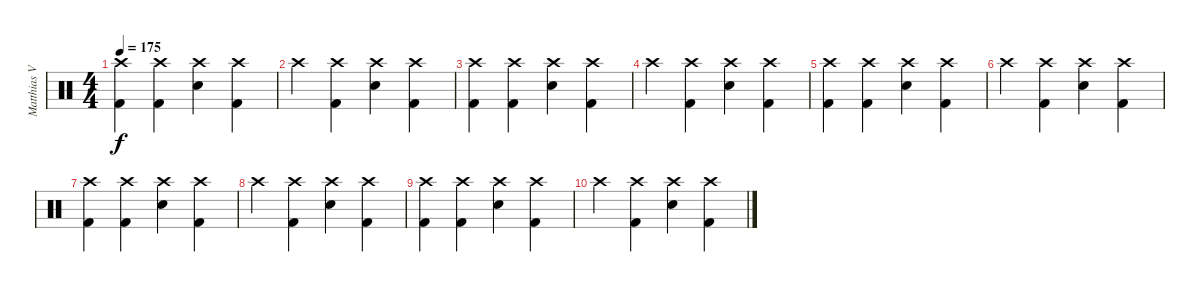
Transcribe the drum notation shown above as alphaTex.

\track ("Matthias Voigt" "Matthias V") {instrument percussion}
\staff {score}
\articulation defaults
\ts (4 4)
\tempo 175
\clef neutral
\ks c
("Crash high (hit)" "Kick (hit) 2").4{dy f} ("Crash high (hit)" "Kick (hit) 2").4 ("Crash high (hit)" "Electric Snare (hit)").4 ("Crash high (hit)" "Kick (hit) 2").4 |
"Crash high (hit)".4 ("Crash high (hit)" "Kick (hit) 2").4 ("Crash high (hit)" "Electric Snare (hit)").4 ("Crash high (hit)" "Kick (hit) 2").4 |
("Crash high (hit)" "Kick (hit) 2").4 ("Crash high (hit)" "Kick (hit) 2").4 ("Crash high (hit)" "Electric Snare (hit)").4 ("Crash high (hit)" "Kick (hit) 2").4 |
"Crash high (hit)".4 ("Crash high (hit)" "Kick (hit) 2").4 ("Crash high (hit)" "Electric Snare (hit)").4 ("Crash high (hit)" "Kick (hit) 2").4 |
("Crash high (hit)" "Kick (hit) 2").4 ("Crash high (hit)" "Kick (hit) 2").4 ("Crash high (hit)" "Electric Snare (hit)").4 ("Crash high (hit)" "Kick (hit) 2").4 |
"Crash high (hit)".4 ("Crash high (hit)" "Kick (hit) 2").4 ("Crash high (hit)" "Electric Snare (hit)").4 ("Crash high (hit)" "Kick (hit) 2").4 |
("Crash high (hit)" "Kick (hit) 2").4 ("Crash high (hit)" "Kick (hit) 2").4 ("Crash high (hit)" "Electric Snare (hit)").4 ("Crash high (hit)" "Kick (hit) 2").4 |
"Crash high (hit)".4 ("Crash high (hit)" "Kick (hit) 2").4 ("Crash high (hit)" "Electric Snare (hit)").4 ("Crash high (hit)" "Kick (hit) 2").4 |
("Crash high (hit)" "Kick (hit) 2").4 ("Crash high (hit)" "Kick (hit) 2").4 ("Crash high (hit)" "Electric Snare (hit)").4 ("Crash high (hit)" "Kick (hit) 2").4 |
"Crash high (hit)".4 ("Crash high (hit)" "Kick (hit) 2").4 ("Crash high (hit)" "Electric Snare (hit)").4 ("Crash high (hit)" "Kick (hit) 2").4
